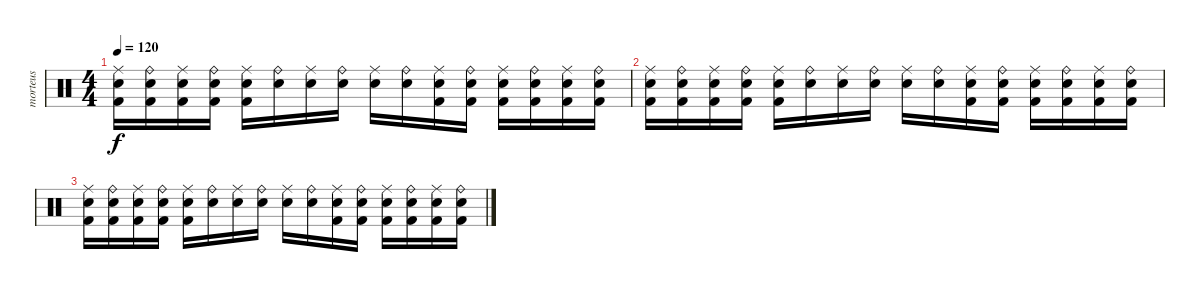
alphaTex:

\track ("morteus" "morteus") {instrument percussion}
\staff {score}
\articulation defaults
\ts (4 4)
\tempo 120
\clef neutral
\ks c
("Electric Snare (hit)" "Ride (middle)" "Kick (hit) 2").16{dy f} ("Electric Snare (hit)" "Ride (bell)" "Kick (hit) 2").16 ("Electric Snare (hit)" "Ride (middle)" "Kick (hit) 2").16 ("Electric Snare (hit)" "Ride (bell)" "Kick (hit) 2").16 ("Electric Snare (hit)" "Ride (middle)" "Kick (hit) 2").16 ("Electric Snare (hit)" "Ride (bell)").16 ("Electric Snare (hit)" "Ride (middle)").16 ("Electric Snare (hit)" "Ride (bell)").16 ("Electric Snare (hit)" "Ride (middle)").16 ("Electric Snare (hit)" "Ride (bell)").16 ("Electric Snare (hit)" "Ride (middle)" "Kick (hit) 2").16 ("Electric Snare (hit)" "Ride (bell)" "Kick (hit) 2").16 ("Electric Snare (hit)" "Ride (middle)" "Kick (hit) 2").16 ("Electric Snare (hit)" "Ride (bell)" "Kick (hit) 2").16 ("Electric Snare (hit)" "Ride (middle)" "Kick (hit) 2").16 ("Electric Snare (hit)" "Ride (bell)" "Kick (hit) 2").16 |
("Electric Snare (hit)" "Ride (middle)" "Kick (hit) 2").16 ("Electric Snare (hit)" "Ride (bell)" "Kick (hit) 2").16 ("Electric Snare (hit)" "Ride (middle)" "Kick (hit) 2").16 ("Electric Snare (hit)" "Ride (bell)" "Kick (hit) 2").16 ("Electric Snare (hit)" "Ride (middle)" "Kick (hit) 2").16 ("Electric Snare (hit)" "Ride (bell)").16 ("Electric Snare (hit)" "Ride (middle)").16 ("Electric Snare (hit)" "Ride (bell)").16 ("Electric Snare (hit)" "Ride (middle)").16 ("Electric Snare (hit)" "Ride (bell)").16 ("Electric Snare (hit)" "Ride (middle)" "Kick (hit) 2").16 ("Electric Snare (hit)" "Ride (bell)" "Kick (hit) 2").16 ("Electric Snare (hit)" "Ride (middle)" "Kick (hit) 2").16 ("Electric Snare (hit)" "Ride (bell)" "Kick (hit) 2").16 ("Electric Snare (hit)" "Ride (middle)" "Kick (hit) 2").16 ("Electric Snare (hit)" "Ride (bell)" "Kick (hit) 2").16 |
("Electric Snare (hit)" "Ride (middle)" "Kick (hit) 2").16 ("Electric Snare (hit)" "Ride (bell)" "Kick (hit) 2").16 ("Electric Snare (hit)" "Ride (middle)" "Kick (hit) 2").16 ("Electric Snare (hit)" "Ride (bell)" "Kick (hit) 2").16 ("Electric Snare (hit)" "Ride (middle)" "Kick (hit) 2").16 ("Electric Snare (hit)" "Ride (bell)").16 ("Electric Snare (hit)" "Ride (middle)").16 ("Electric Snare (hit)" "Ride (bell)").16 ("Electric Snare (hit)" "Ride (middle)").16 ("Electric Snare (hit)" "Ride (bell)").16 ("Electric Snare (hit)" "Ride (middle)" "Kick (hit) 2").16 ("Electric Snare (hit)" "Ride (bell)" "Kick (hit) 2").16 ("Electric Snare (hit)" "Ride (middle)" "Kick (hit) 2").16 ("Electric Snare (hit)" "Ride (bell)" "Kick (hit) 2").16 ("Electric Snare (hit)" "Ride (middle)" "Kick (hit) 2").16 ("Electric Snare (hit)" "Ride (bell)" "Kick (hit) 2").16
